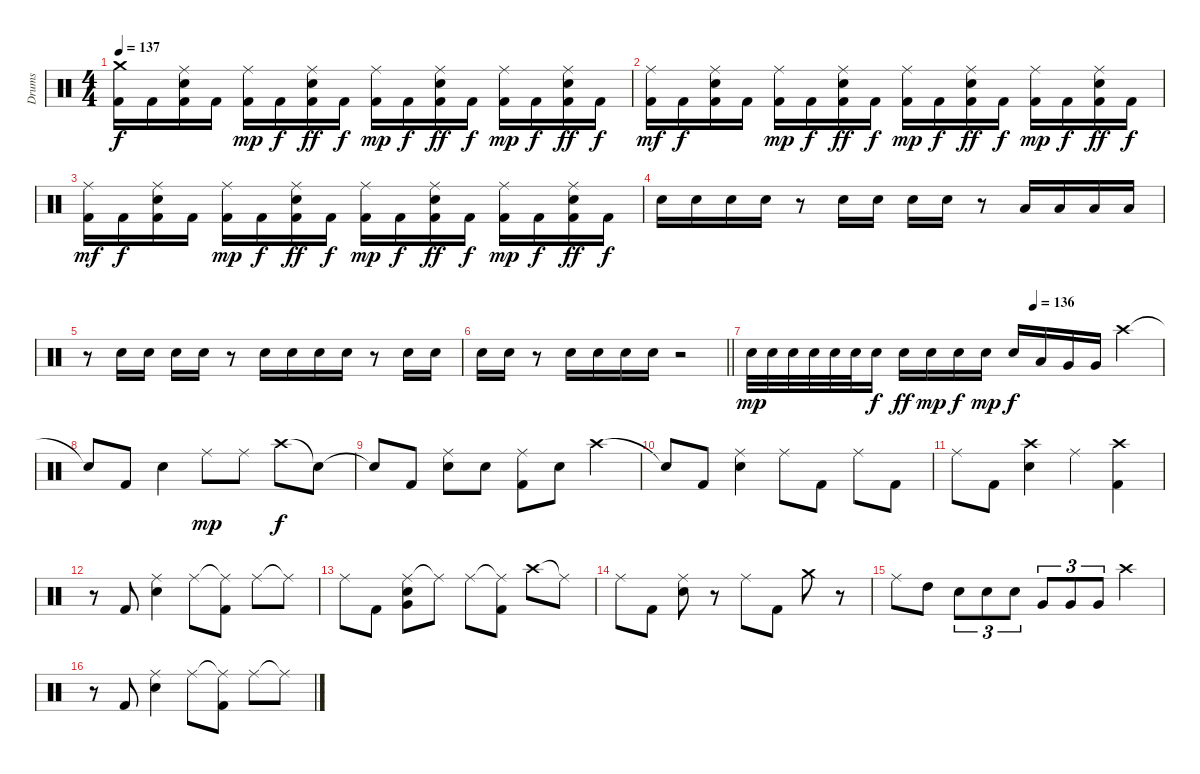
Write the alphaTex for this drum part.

\track ("Drums" "Drums") {instrument percussion}
\staff {score}
\articulation defaults
\ts (4 4)
\tempo 137
\clef neutral
\ks c
("Crash medium (hit)" "Kick (hit) 2").16{dy f} "Kick (hit) 2".16 ("Ride (middle)" "Electric Snare (hit)" "Kick (hit) 2").16 "Kick (hit) 2".16 ("Ride (middle)" "Kick (hit) 2").16{dy mp} "Kick (hit) 2".16{dy f} ("Ride (middle)" "Electric Snare (hit)" "Kick (hit) 2").16{dy ff} "Kick (hit) 2".16{dy f} ("Ride (middle)" "Kick (hit) 2").16{dy mp} "Kick (hit) 2".16{dy f} ("Ride (middle)" "Electric Snare (hit)" "Kick (hit) 2").16{dy ff} "Kick (hit) 2".16{dy f} ("Ride (middle)" "Kick (hit) 2").16{dy mp} "Kick (hit) 2".16{dy f} ("Ride (middle)" "Electric Snare (hit)" "Kick (hit) 2").16{dy ff} "Kick (hit) 2".16{dy f} |
("Ride (middle)" "Kick (hit) 2").16{dy mf} "Kick (hit) 2".16{dy f} ("Ride (middle)" "Electric Snare (hit)" "Kick (hit) 2").16 "Kick (hit) 2".16 ("Ride (middle)" "Kick (hit) 2").16{dy mp} "Kick (hit) 2".16{dy f} ("Ride (middle)" "Electric Snare (hit)" "Kick (hit) 2").16{dy ff} "Kick (hit) 2".16{dy f} ("Ride (middle)" "Kick (hit) 2").16{dy mp} "Kick (hit) 2".16{dy f} ("Ride (middle)" "Electric Snare (hit)" "Kick (hit) 2").16{dy ff} "Kick (hit) 2".16{dy f} ("Ride (middle)" "Kick (hit) 2").16{dy mp} "Kick (hit) 2".16{dy f} ("Ride (middle)" "Electric Snare (hit)" "Kick (hit) 2").16{dy ff} "Kick (hit) 2".16{dy f} |
("Ride (middle)" "Kick (hit) 2").16{dy mf} "Kick (hit) 2".16{dy f} ("Ride (middle)" "Electric Snare (hit)" "Kick (hit) 2").16 "Kick (hit) 2".16 ("Ride (middle)" "Kick (hit) 2").16{dy mp} "Kick (hit) 2".16{dy f} ("Ride (middle)" "Electric Snare (hit)" "Kick (hit) 2").16{dy ff} "Kick (hit) 2".16{dy f} ("Ride (middle)" "Kick (hit) 2").16{dy mp} "Kick (hit) 2".16{dy f} ("Ride (middle)" "Electric Snare (hit)" "Kick (hit) 2").16{dy ff} "Kick (hit) 2".16{dy f} ("Ride (middle)" "Kick (hit) 2").16{dy mp} "Kick (hit) 2".16{dy f} ("Ride (middle)" "Electric Snare (hit)" "Kick (hit) 2").16{dy ff} "Kick (hit) 2".16{dy f} |
"Electric Snare (hit)".16 "Electric Snare (hit)".16 "Electric Snare (hit)".16 "Electric Snare (hit)".16 r.8 "Electric Snare (hit)".16 "Electric Snare (hit)".16 "Electric Snare (hit)".16 "Electric Snare (hit)".16 r.8 "Low Tom (hit)".16 "Low Tom (hit)".16 "Low Tom (hit)".16 "Low Tom (hit)".16 |
r.8 "Electric Snare (hit)".16 "Electric Snare (hit)".16 "Electric Snare (hit)".16 "Electric Snare (hit)".16 r.8 "Electric Snare (hit)".16 "Electric Snare (hit)".16 "Electric Snare (hit)".16 "Electric Snare (hit)".16 r.8 "Electric Snare (hit)".16 "Electric Snare (hit)".16 |
\barLineRight lightlight "Electric Snare (hit)".16 "Electric Snare (hit)".16
r.8 "Electric Snare (hit)".16 "Electric Snare (hit)".16 "Electric Snare (hit)".16 "Electric Snare (hit)".16 r.2 |
\section ("" "")
\tempo (136 0.6875)
"Electric Snare (hit)".32{dy mp} "Electric Snare (hit)".32 "Electric Snare (hit)".32 "Electric Snare (hit)".32 "Electric Snare (hit)".32 "Electric Snare (hit)".32 "Electric Snare (hit)".16{dy f} "Electric Snare (hit)".16{dy ff} "Electric Snare (hit)".16{dy mp} "Electric Snare (hit)".16{dy f} "Electric Snare (hit)".16{dy mp} "Electric Snare (hit)".16{dy f} "Low Tom (hit)".16 "Very Low Tom (hit)".16 "Very Low Tom (hit)".16 "Crash high (hit)".4 |
"Snare (hit)"{t}.8 "Kick (hit) 2".8 "Electric Snare (hit)".4 "Ride (middle)".8{dy mp} "Ride (middle)".8 "Crash high (hit)".8{dy f} "Snare (hit)"{t}.8 |
"Snare (hit)"{t}.8 "Kick (hit) 2".8 ("Ride (middle)" "Electric Snare (hit)").8 "Electric Snare (hit)".8 ("Ride (middle)" "Kick (hit) 2").8 "Electric Snare (hit)".8 "Crash high (hit)".4 |
"Snare (hit)"{t}.8 "Kick (hit) 2".8 ("Ride (middle)" "Electric Snare (hit)").4 "Ride (middle)".8 "Kick (hit) 2".8 "Ride (middle)".8 "Kick (hit) 2".8 |
"Ride (middle)".8 "Kick (hit) 2".8 ("Crash high (hit)" "Electric Snare (hit)").4 "Ride (middle)".4 ("Crash high (hit)" "Kick (hit) 2").4 |
r.8 "Kick (hit) 2".8 ("Ride (middle)" "Electric Snare (hit)").4 "Ride (middle)".8 ("Ride (middle)"{t} "Kick (hit) 2").8 "Ride (middle)".8 "Ride (middle)"{t}.8 |
"Ride (middle)".8 "Kick (hit) 2".8 ("Ride (middle)" "Very Low Tom (hit)" "Electric Snare (hit)").8 "Ride (middle)"{t}.8 "Ride (middle)".8 ("Ride (middle)"{t} "Kick (hit) 2").8 "Crash high (hit)".8 "Ride (middle)"{t}.8 |
"Ride (middle)".8 "Kick (hit) 2".8 ("Ride (middle)" "Electric Snare (hit)").8 r.8 "Ride (middle)".8 "Kick (hit) 2".8 "Crash medium (hit)".8 r.8 |
"Ride (middle)".8 "High Tom (hit)".8 "Electric Snare (hit)".8{tu (3 2)} "Electric Snare (hit)".8{tu (3 2)} "Electric Snare (hit)".8{tu (3 2)} "Very Low Tom (hit)".8{tu (3 2)} "Very Low Tom (hit)".8{tu (3 2)} "Very Low Tom (hit)".8{tu (3 2)} "Crash high (hit)".4 |
r.8 "Kick (hit) 2".8 ("Ride (middle)" "Electric Snare (hit)").4 "Ride (middle)".8 ("Ride (middle)"{t} "Kick (hit) 2").8 "Ride (middle)".8 "Ride (middle)"{t}.8
